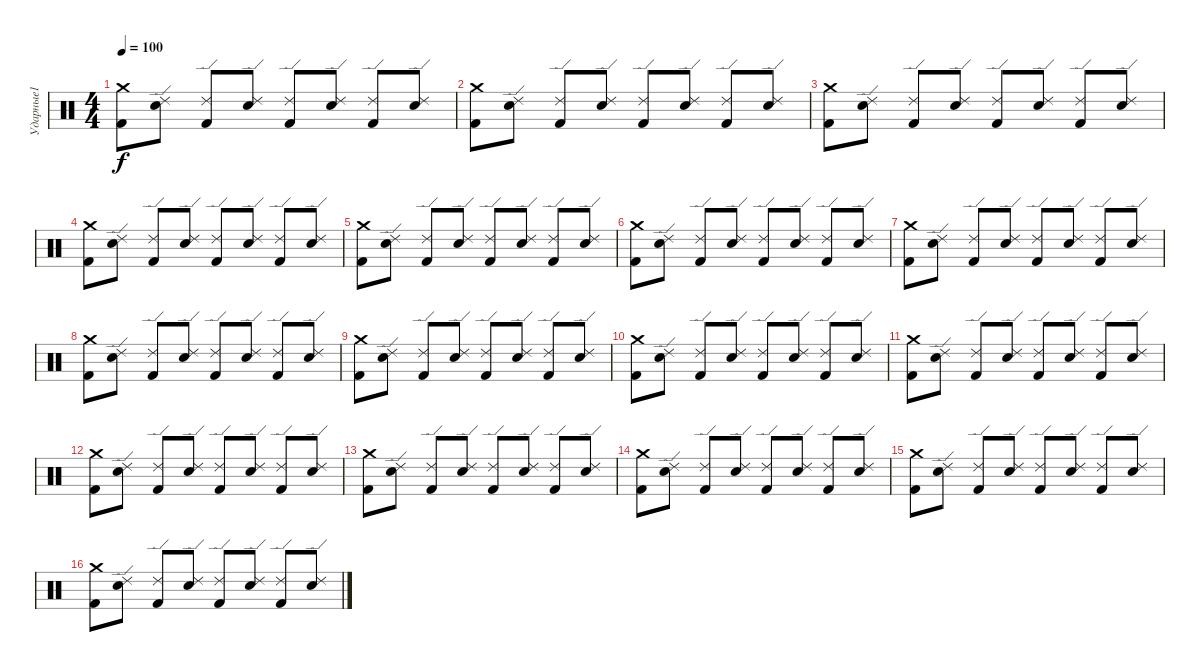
\track ("Ударные1" "Ударные1") {instrument percussion}
\staff {score}
\articulation defaults
\ts (4 4)
\tempo 100
\clef neutral
\ks c
("Kick (hit) 2" "Crash medium (hit)").8{dy f} ("Snare (hit) 2" "Ride (edge) 2").8 ("Kick (hit) 2" "Ride (edge) 2").8 ("Snare (hit) 2" "Ride (edge) 2").8 ("Kick (hit) 2" "Ride (edge) 2").8 ("Snare (hit) 2" "Ride (edge) 2").8 ("Kick (hit) 2" "Ride (edge) 2").8 ("Snare (hit) 2" "Ride (edge) 2").8 |
("Kick (hit) 2" "Crash medium (hit)").8 ("Snare (hit) 2" "Ride (edge) 2").8 ("Kick (hit) 2" "Ride (edge) 2").8 ("Snare (hit) 2" "Ride (edge) 2").8 ("Kick (hit) 2" "Ride (edge) 2").8 ("Snare (hit) 2" "Ride (edge) 2").8 ("Kick (hit) 2" "Ride (edge) 2").8 ("Snare (hit) 2" "Ride (edge) 2").8 |
("Kick (hit) 2" "Crash medium (hit)").8 ("Snare (hit) 2" "Ride (edge) 2").8 ("Kick (hit) 2" "Ride (edge) 2").8 ("Snare (hit) 2" "Ride (edge) 2").8 ("Kick (hit) 2" "Ride (edge) 2").8 ("Snare (hit) 2" "Ride (edge) 2").8 ("Kick (hit) 2" "Ride (edge) 2").8 ("Snare (hit) 2" "Ride (edge) 2").8 |
("Kick (hit) 2" "Crash medium (hit)").8 ("Snare (hit) 2" "Ride (edge) 2").8 ("Kick (hit) 2" "Ride (edge) 2").8 ("Snare (hit) 2" "Ride (edge) 2").8 ("Kick (hit) 2" "Ride (edge) 2").8 ("Snare (hit) 2" "Ride (edge) 2").8 ("Kick (hit) 2" "Ride (edge) 2").8 ("Snare (hit) 2" "Ride (edge) 2").8 |
("Kick (hit) 2" "Crash medium (hit)").8 ("Snare (hit) 2" "Ride (edge) 2").8 ("Kick (hit) 2" "Ride (edge) 2").8 ("Snare (hit) 2" "Ride (edge) 2").8 ("Kick (hit) 2" "Ride (edge) 2").8 ("Snare (hit) 2" "Ride (edge) 2").8 ("Kick (hit) 2" "Ride (edge) 2").8 ("Snare (hit) 2" "Ride (edge) 2").8 |
("Kick (hit) 2" "Crash medium (hit)").8 ("Snare (hit) 2" "Ride (edge) 2").8 ("Kick (hit) 2" "Ride (edge) 2").8 ("Snare (hit) 2" "Ride (edge) 2").8 ("Kick (hit) 2" "Ride (edge) 2").8 ("Snare (hit) 2" "Ride (edge) 2").8 ("Kick (hit) 2" "Ride (edge) 2").8 ("Snare (hit) 2" "Ride (edge) 2").8 |
("Kick (hit) 2" "Crash medium (hit)").8 ("Snare (hit) 2" "Ride (edge) 2").8 ("Kick (hit) 2" "Ride (edge) 2").8 ("Snare (hit) 2" "Ride (edge) 2").8 ("Kick (hit) 2" "Ride (edge) 2").8 ("Snare (hit) 2" "Ride (edge) 2").8 ("Kick (hit) 2" "Ride (edge) 2").8 ("Snare (hit) 2" "Ride (edge) 2").8 |
("Kick (hit) 2" "Crash medium (hit)").8 ("Snare (hit) 2" "Ride (edge) 2").8 ("Kick (hit) 2" "Ride (edge) 2").8 ("Snare (hit) 2" "Ride (edge) 2").8 ("Kick (hit) 2" "Ride (edge) 2").8 ("Snare (hit) 2" "Ride (edge) 2").8 ("Kick (hit) 2" "Ride (edge) 2").8 ("Snare (hit) 2" "Ride (edge) 2").8 |
("Kick (hit) 2" "Crash medium (hit)").8 ("Snare (hit) 2" "Ride (edge) 2").8 ("Kick (hit) 2" "Ride (edge) 2").8 ("Snare (hit) 2" "Ride (edge) 2").8 ("Kick (hit) 2" "Ride (edge) 2").8 ("Snare (hit) 2" "Ride (edge) 2").8 ("Kick (hit) 2" "Ride (edge) 2").8 ("Snare (hit) 2" "Ride (edge) 2").8 |
("Kick (hit) 2" "Crash medium (hit)").8 ("Snare (hit) 2" "Ride (edge) 2").8 ("Kick (hit) 2" "Ride (edge) 2").8 ("Snare (hit) 2" "Ride (edge) 2").8 ("Kick (hit) 2" "Ride (edge) 2").8 ("Snare (hit) 2" "Ride (edge) 2").8 ("Kick (hit) 2" "Ride (edge) 2").8 ("Snare (hit) 2" "Ride (edge) 2").8 |
("Kick (hit) 2" "Crash medium (hit)").8 ("Snare (hit) 2" "Ride (edge) 2").8 ("Kick (hit) 2" "Ride (edge) 2").8 ("Snare (hit) 2" "Ride (edge) 2").8 ("Kick (hit) 2" "Ride (edge) 2").8 ("Snare (hit) 2" "Ride (edge) 2").8 ("Kick (hit) 2" "Ride (edge) 2").8 ("Snare (hit) 2" "Ride (edge) 2").8 |
("Kick (hit) 2" "Crash medium (hit)").8 ("Snare (hit) 2" "Ride (edge) 2").8 ("Kick (hit) 2" "Ride (edge) 2").8 ("Snare (hit) 2" "Ride (edge) 2").8 ("Kick (hit) 2" "Ride (edge) 2").8 ("Snare (hit) 2" "Ride (edge) 2").8 ("Kick (hit) 2" "Ride (edge) 2").8 ("Snare (hit) 2" "Ride (edge) 2").8 |
("Kick (hit) 2" "Crash medium (hit)").8 ("Snare (hit) 2" "Ride (edge) 2").8 ("Kick (hit) 2" "Ride (edge) 2").8 ("Snare (hit) 2" "Ride (edge) 2").8 ("Kick (hit) 2" "Ride (edge) 2").8 ("Snare (hit) 2" "Ride (edge) 2").8 ("Kick (hit) 2" "Ride (edge) 2").8 ("Snare (hit) 2" "Ride (edge) 2").8 |
("Kick (hit) 2" "Crash medium (hit)").8 ("Snare (hit) 2" "Ride (edge) 2").8 ("Kick (hit) 2" "Ride (edge) 2").8 ("Snare (hit) 2" "Ride (edge) 2").8 ("Kick (hit) 2" "Ride (edge) 2").8 ("Snare (hit) 2" "Ride (edge) 2").8 ("Kick (hit) 2" "Ride (edge) 2").8 ("Snare (hit) 2" "Ride (edge) 2").8 |
("Kick (hit) 2" "Crash medium (hit)").8 ("Snare (hit) 2" "Ride (edge) 2").8 ("Kick (hit) 2" "Ride (edge) 2").8 ("Snare (hit) 2" "Ride (edge) 2").8 ("Kick (hit) 2" "Ride (edge) 2").8 ("Snare (hit) 2" "Ride (edge) 2").8 ("Kick (hit) 2" "Ride (edge) 2").8 ("Snare (hit) 2" "Ride (edge) 2").8 |
("Kick (hit) 2" "Crash medium (hit)").8 ("Snare (hit) 2" "Ride (edge) 2").8 ("Kick (hit) 2" "Ride (edge) 2").8 ("Snare (hit) 2" "Ride (edge) 2").8 ("Kick (hit) 2" "Ride (edge) 2").8 ("Snare (hit) 2" "Ride (edge) 2").8 ("Kick (hit) 2" "Ride (edge) 2").8 ("Snare (hit) 2" "Ride (edge) 2").8
